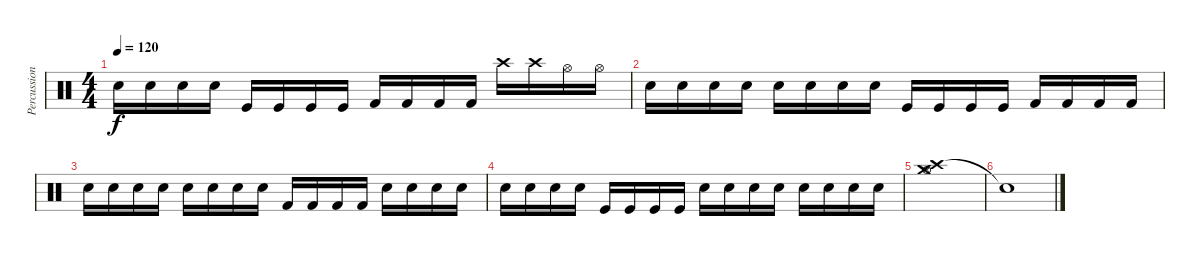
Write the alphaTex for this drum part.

\track ("Percussions" "Percussion") {instrument percussion}
\staff {score}
\articulation defaults
\ts (4 4)
\tempo 120
\clef neutral
\ks c "Snare (hit) 2".16{dy f} "Snare (hit) 2".16 "Snare (hit) 2".16 "Snare (hit) 2".16 "Kick (hit)".16 "Kick (hit)".16 "Kick (hit)".16 "Kick (hit)".16 "Kick (hit) 2".16 "Kick (hit) 2".16 "Kick (hit) 2".16 "Kick (hit) 2".16 "Crash high (hit)".16 "Crash high (hit)".16 "Hi-Hat (open)".16 "Hi-Hat (open)".16
|
"Electric Snare (hit)".16 "Electric Snare (hit)".16 "Electric Snare (hit)".16 "Electric Snare (hit)".16 "Snare (hit) 2".16 "Snare (hit) 2".16 "Snare (hit) 2".16 "Snare (hit) 2".16 "Kick (hit)".16 "Kick (hit)".16 "Kick (hit)".16 "Kick (hit)".16 "Kick (hit) 2".16 "Kick (hit) 2".16 "Kick (hit) 2".16 "Kick (hit) 2".16 |
"Electric Snare (hit)".16 "Electric Snare (hit)".16 "Electric Snare (hit)".16 "Electric Snare (hit)".16 "Snare (hit) 2".16 "Snare (hit) 2".16 "Snare (hit) 2".16 "Snare (hit) 2".16 "Kick (hit) 2".16 "Kick (hit) 2".16 "Kick (hit) 2".16 "Kick (hit) 2".16 "Electric Snare (hit)".16 "Electric Snare (hit)".16 "Electric Snare (hit)".16 "Electric Snare (hit)".16 |
"Snare (hit) 2".16 "Snare (hit) 2".16 "Snare (hit) 2".16 "Snare (hit) 2".16 "Kick (hit)".16 "Kick (hit)".16 "Kick (hit)".16 "Kick (hit)".16 "Electric Snare (hit)".16 "Electric Snare (hit)".16 "Electric Snare (hit)".16 "Electric Snare (hit)".16 "Snare (hit) 2".16 "Snare (hit) 2".16 "Snare (hit) 2".16 "Snare (hit) 2".16 |
("Crash high (hit)" "Crash medium (hit)" "Hi-Hat (open)").1 |
"Snare (hit)"{t}.1
